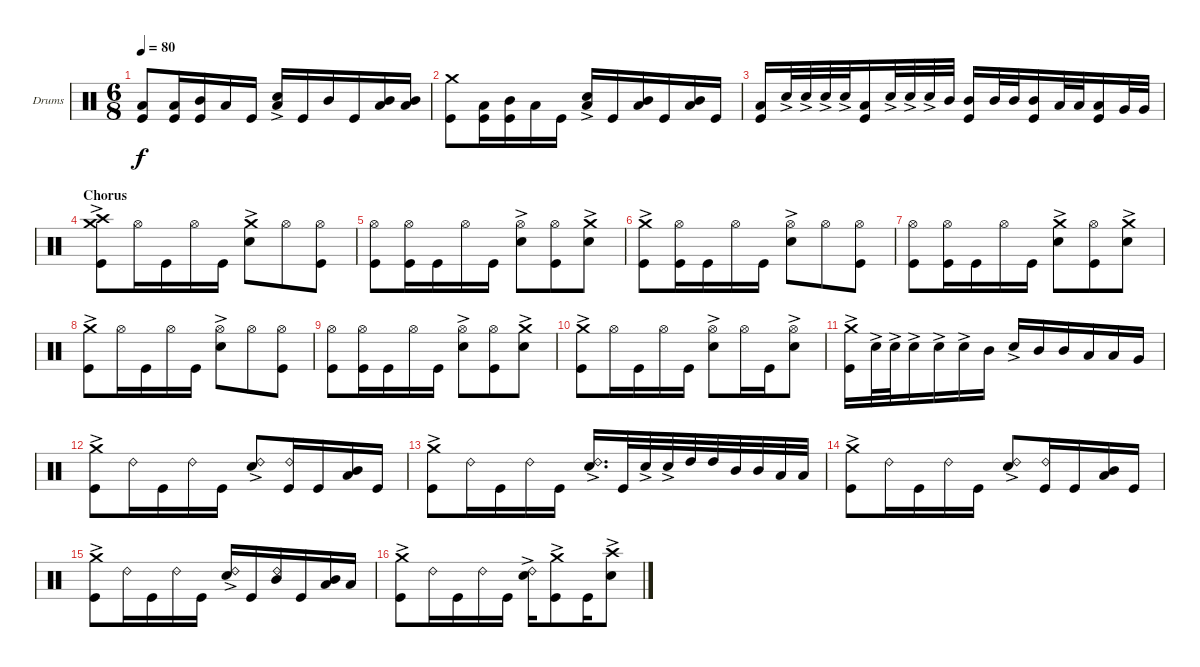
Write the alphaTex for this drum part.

\defaultSystemsLayout 4
\bracketExtendMode groupsimilarinstruments
\firstSystemTrackNameOrientation horizontal
\otherSystemsTrackNameOrientation horizontal
\track ("Drumkit" "Drums") {instrument percussion}
\staff {score}
\articulation defaults
\ts (6 8)
\tempo 80
\clef neutral
\ks c
("Low Tom (hit)" "Kick (hit)").8{dy f} ("Low Tom (hit)" "Kick (hit)").16 ("Mid Tom (hit)" "Kick (hit)").16 "Low Tom (hit)".16 "Kick (hit)".16 ("Snare (hit) 2"{ac} "Low Tom (hit)").16 "Kick (hit)".16 "Mid Tom (hit)".16 "Kick (hit)".16 ("Mid Tom (hit)" "Low Tom (hit)").16 ("Mid Tom (hit)" "Low Tom (hit)").16 |
("Crash medium (hit)" "Kick (hit)").8 ("Low Tom (hit)" "Kick (hit)").16 ("Mid Tom (hit)" "Kick (hit)").16 "Low Tom (hit)".16 "Kick (hit)".16 ("Snare (hit) 2"{ac} "Low Tom (hit)").16 "Kick (hit)".16 ("Mid Tom (hit)" "Low Tom (hit)").16 "Kick (hit)".16 ("Mid Tom (hit)" "Low Tom (hit)").16 "Kick (hit)".16 |
("Low Tom (hit)" "Kick (hit)").16 "Snare (hit) 2"{ac}.32 "Snare (hit) 2"{ac}.32 "Snare (hit) 2"{ac}.32 "Snare (hit) 2"{ac}.32 ("Low Tom (hit)" "Kick (hit)").16 "Snare (hit) 2"{ac}.32 "Snare (hit) 2"{ac}.32 "Snare (hit) 2"{ac}.32 "Mid Tom (hit)".32 ("Mid Tom (hit)" "Kick (hit)").16 "Mid Tom (hit)".32 "Mid Tom (hit)".32 ("Mid Tom (hit)" "Kick (hit)").16 "Low Tom (hit)".32 "Low Tom (hit)".32 ("Low Tom (hit)" "Kick (hit)").16 "Very Low Tom (hit)".32 "Very Low Tom (hit)".32 |
\section ("" "Chorus")
("Crash medium (hit)"{ac} "Crash high (hit)" "Kick (hit)").8 "Hi-Hat (open)".16 "Kick (hit)".16 "Hi-Hat (open)".16 "Kick (hit)".16 ("Crash medium (hit)"{ac} "Snare (hit) 2"{ac}).8 "Hi-Hat (open)".8 ("Hi-Hat (open)" "Kick (hit)").8 |
("Hi-Hat (open)" "Kick (hit)").8 ("Hi-Hat (open)" "Kick (hit)").16 "Kick (hit)".16 "Hi-Hat (open)".16 "Kick (hit)".16 ("Hi-Hat (open)" "Snare (hit) 2"{ac}).8 ("Hi-Hat (open)" "Kick (hit)").8 ("Crash medium (hit)"{ac} "Snare (hit) 2"{ac}).8 |
("Crash medium (hit)"{ac} "Kick (hit)").8 ("Hi-Hat (open)" "Kick (hit)").16 "Kick (hit)".16 "Hi-Hat (open)".16 "Kick (hit)".16 ("Hi-Hat (open)" "Snare (hit) 2"{ac}).8 "Hi-Hat (open)".8 ("Hi-Hat (open)" "Kick (hit)").8 |
("Hi-Hat (open)" "Kick (hit)").8 ("Hi-Hat (open)" "Kick (hit)").16 "Kick (hit)".16 "Hi-Hat (open)".16 "Kick (hit)".16 ("Crash medium (hit)"{ac} "Snare (hit) 2"{ac}).8 ("Hi-Hat (open)" "Kick (hit)").8 ("Crash medium (hit)"{ac} "Snare (hit) 2"{ac}).8 |
("Crash medium (hit)"{ac} "Kick (hit)").8 "Hi-Hat (open)".16 "Kick (hit)".16 "Hi-Hat (open)".16 "Kick (hit)".16 ("Hi-Hat (open)" "Snare (hit) 2"{ac}).8 "Hi-Hat (open)".8 ("Hi-Hat (open)" "Kick (hit)").8 |
("Hi-Hat (open)" "Kick (hit)").8 ("Hi-Hat (open)" "Kick (hit)").16 "Kick (hit)".16 "Hi-Hat (open)".16 "Kick (hit)".16 ("Hi-Hat (open)" "Snare (hit) 2"{ac}).8 ("Hi-Hat (open)" "Kick (hit)").8 ("Crash medium (hit)"{ac} "Snare (hit) 2"{ac}).8 |
("Crash medium (hit)"{ac} "Kick (hit)").8 "Hi-Hat (open)".16 "Kick (hit)".16 "Hi-Hat (open)".16 "Kick (hit)".16 ("Hi-Hat (open)" "Snare (hit) 2"{ac}).8 "Hi-Hat (open)".16 "Kick (hit)".16 ("Hi-Hat (open)" "Snare (hit) 2"{ac}).8 |
("Crash medium (hit)"{ac} "Kick (hit)").16 "Snare (hit) 2"{ac}.32 "Snare (hit) 2"{ac}.32 "Snare (hit) 2"{ac}.16 "Snare (hit) 2"{ac}.16 "Snare (hit) 2"{ac}.16 "Mid Tom (hit)".16 "Snare (hit) 2"{ac}.16 "Mid Tom (hit)".16 "Mid Tom (hit)".16 "Low Tom (hit)".16 "Low Tom (hit)".16 "Very Low Tom (hit)".16 |
("Crash medium (hit)"{ac} "Kick (hit)").8 "Ride (bell) 2".16 "Kick (hit)".16 "Ride (bell) 2".16 "Kick (hit)".16 ("Ride (bell) 2" "Snare (hit) 2"{ac}).8 ("Ride (bell) 2" "Kick (hit)").16 "Kick (hit)".16 ("Mid Tom (hit)" "Low Tom (hit)").16 "Kick (hit)".16 |
("Crash medium (hit)"{ac} "Kick (hit)").8 "Ride (bell) 2".16 "Kick (hit)".16 "Ride (bell) 2".16 "Kick (hit)".16 ("Ride (bell) 2" "Snare (hit) 2"{ac}).16{d} "Kick (hit)".32 "Snare (hit) 2"{ac}.32 "Snare (hit) 2"{ac}.32 "High Tom (hit)".32 "High Tom (hit)".32 "Mid Tom (hit)".32 "Mid Tom (hit)".32 "Low Tom (hit)".32 "Low Tom (hit)".32 |
("Crash medium (hit)"{ac} "Kick (hit)").8 "Ride (bell) 2".16 "Kick (hit)".16 "Ride (bell) 2".16 "Kick (hit)".16 ("Ride (bell) 2" "Snare (hit) 2"{ac}).8 ("Ride (bell) 2" "Kick (hit)").16 "Kick (hit)".16 ("Mid Tom (hit)" "Low Tom (hit)").16 "Kick (hit)".16 |
("Crash medium (hit)"{ac} "Kick (hit)").8 "Ride (bell) 2".16 "Kick (hit)".16 "Ride (bell) 2".16 "Kick (hit)".16 ("Ride (bell) 2" "Snare (hit) 2"{ac}).16 "Kick (hit)".16 ("Ride (bell) 2" "Mid Tom (hit)").16 "Kick (hit)".16 ("Mid Tom (hit)" "Low Tom (hit)").16 "Low Tom (hit)".16 |
("Crash medium (hit)"{ac} "Kick (hit)").8 "Ride (bell) 2".16 "Kick (hit)".16 "Ride (bell) 2".16 "Kick (hit)".16 ("Ride (bell) 2" "Snare (hit) 2"{ac}).16 ("Crash medium (hit)"{ac} "Kick (hit)").8 "Kick (hit)".16 ("Crash high (hit)" "Snare (hit) 2"{ac}).8
